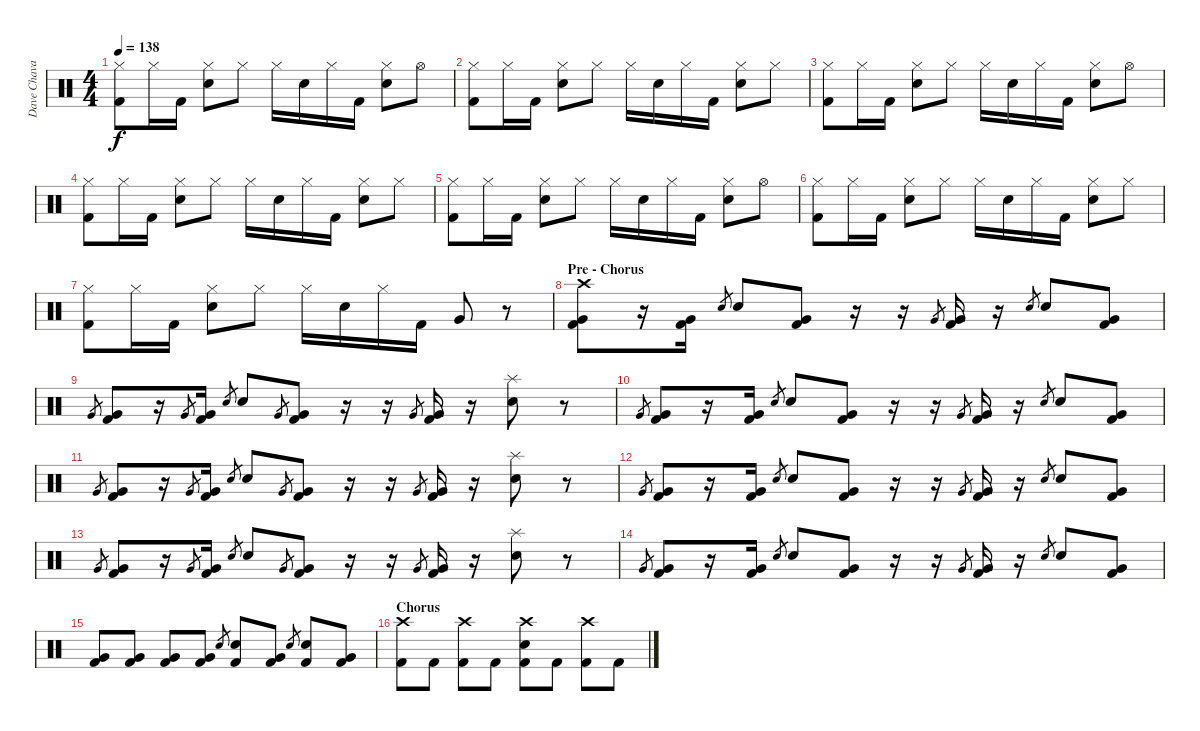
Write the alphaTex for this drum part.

\track ("Dave Chavarri - Drums" "Dave Chava") {instrument percussion}
\staff {score}
\articulation defaults
\ts (4 4)
\tempo 138
\clef neutral
\ks c
("Hi-Hat (closed)" "Kick (hit) 2").8{dy f} "Hi-Hat (closed)".16 "Kick (hit) 2".16 ("Hi-Hat (closed)" "Electric Snare (hit)").8 "Hi-Hat (closed)".8 "Hi-Hat (closed)".16 "Electric Snare (hit)".16 "Hi-Hat (closed)".16 "Kick (hit) 2".16 ("Hi-Hat (closed)" "Electric Snare (hit)").8 "Hi-Hat (open)".8 |
("Hi-Hat (closed)" "Kick (hit) 2").8 "Hi-Hat (closed)".16 "Kick (hit) 2".16 ("Hi-Hat (closed)" "Electric Snare (hit)").8 "Hi-Hat (closed)".8 "Hi-Hat (closed)".16 "Electric Snare (hit)".16 "Hi-Hat (closed)".16 "Kick (hit) 2".16 ("Hi-Hat (closed)" "Electric Snare (hit)").8 "Hi-Hat (closed)".8 |
("Hi-Hat (closed)" "Kick (hit) 2").8 "Hi-Hat (closed)".16 "Kick (hit) 2".16 ("Hi-Hat (closed)" "Electric Snare (hit)").8 "Hi-Hat (closed)".8 "Hi-Hat (closed)".16 "Electric Snare (hit)".16 "Hi-Hat (closed)".16 "Kick (hit) 2".16 ("Hi-Hat (closed)" "Electric Snare (hit)").8 "Hi-Hat (open)".8 |
("Hi-Hat (closed)" "Kick (hit) 2").8 "Hi-Hat (closed)".16 "Kick (hit) 2".16 ("Hi-Hat (closed)" "Electric Snare (hit)").8 "Hi-Hat (closed)".8 "Hi-Hat (closed)".16 "Electric Snare (hit)".16 "Hi-Hat (closed)".16 "Kick (hit) 2".16 ("Hi-Hat (closed)" "Electric Snare (hit)").8 "Hi-Hat (closed)".8 |
("Hi-Hat (closed)" "Kick (hit) 2").8 "Hi-Hat (closed)".16 "Kick (hit) 2".16 ("Hi-Hat (closed)" "Electric Snare (hit)").8 "Hi-Hat (closed)".8 "Hi-Hat (closed)".16 "Electric Snare (hit)".16 "Hi-Hat (closed)".16 "Kick (hit) 2".16 ("Hi-Hat (closed)" "Electric Snare (hit)").8 "Hi-Hat (open)".8 |
("Hi-Hat (closed)" "Kick (hit) 2").8 "Hi-Hat (closed)".16 "Kick (hit) 2".16 ("Hi-Hat (closed)" "Electric Snare (hit)").8 "Hi-Hat (closed)".8 "Hi-Hat (closed)".16 "Electric Snare (hit)".16 "Hi-Hat (closed)".16 "Kick (hit) 2".16 ("Hi-Hat (closed)" "Electric Snare (hit)").8 "Hi-Hat (closed)".8 |
("Hi-Hat (closed)" "Kick (hit) 2").8 "Hi-Hat (closed)".16 "Kick (hit) 2".16 ("Hi-Hat (closed)" "Electric Snare (hit)").8 "Hi-Hat (closed)".8 "Hi-Hat (closed)".16 "Electric Snare (hit)".16 "Hi-Hat (closed)".16 "Kick (hit) 2".16 "Very Low Tom (hit)".8 r.8 |
\section ("" "Pre - Chorus")
("Crash high (hit)" "Very Low Tom (hit)" "Kick (hit) 2").8 r.16 ("Very Low Tom (hit)" "Kick (hit) 2").16 "Electric Snare (hit)".8{gr} "Electric Snare (hit)".8 ("Very Low Tom (hit)" "Kick (hit) 2").8 r.16 r.16 "Very Low Tom (hit)".8{gr} ("Very Low Tom (hit)" "Kick (hit) 2").16 r.16 "Electric Snare (hit)".8{gr} "Electric Snare (hit)".8 ("Very Low Tom (hit)" "Kick (hit) 2").8 |
"Very Low Tom (hit)".8{gr} ("Very Low Tom (hit)" "Kick (hit) 2").8 r.16 "Very Low Tom (hit)".8{gr} ("Very Low Tom (hit)" "Kick (hit) 2").16 "Electric Snare (hit)".8{gr} "Electric Snare (hit)".8 "Very Low Tom (hit)".8{gr} ("Very Low Tom (hit)" "Kick (hit) 2").8 r.16 r.16 "Very Low Tom (hit)".8{gr} ("Very Low Tom (hit)" "Kick (hit) 2").16 r.16 ("Splash (hit)" "Electric Snare (hit)").8 r.8 |
"Very Low Tom (hit)".8{gr} ("Very Low Tom (hit)" "Kick (hit) 2").8 r.16 ("Very Low Tom (hit)" "Kick (hit) 2").16 "Electric Snare (hit)".8{gr} "Electric Snare (hit)".8 ("Very Low Tom (hit)" "Kick (hit) 2").8 r.16 r.16 "Very Low Tom (hit)".8{gr} ("Very Low Tom (hit)" "Kick (hit) 2").16 r.16 "Electric Snare (hit)".8{gr} "Electric Snare (hit)".8 ("Very Low Tom (hit)" "Kick (hit) 2").8 |
"Very Low Tom (hit)".8{gr} ("Very Low Tom (hit)" "Kick (hit) 2").8 r.16 "Very Low Tom (hit)".8{gr} ("Very Low Tom (hit)" "Kick (hit) 2").16 "Electric Snare (hit)".8{gr} "Electric Snare (hit)".8 "Very Low Tom (hit)".8{gr} ("Very Low Tom (hit)" "Kick (hit) 2").8 r.16 r.16 "Very Low Tom (hit)".8{gr} ("Very Low Tom (hit)" "Kick (hit) 2").16 r.16 ("Splash (hit)" "Electric Snare (hit)").8 r.8 |
"Very Low Tom (hit)".8{gr} ("Very Low Tom (hit)" "Kick (hit) 2").8 r.16 ("Very Low Tom (hit)" "Kick (hit) 2").16 "Electric Snare (hit)".8{gr} "Electric Snare (hit)".8 ("Very Low Tom (hit)" "Kick (hit) 2").8 r.16 r.16 "Very Low Tom (hit)".8{gr} ("Very Low Tom (hit)" "Kick (hit) 2").16 r.16 "Electric Snare (hit)".8{gr} "Electric Snare (hit)".8 ("Very Low Tom (hit)" "Kick (hit) 2").8 |
"Very Low Tom (hit)".8{gr} ("Very Low Tom (hit)" "Kick (hit) 2").8 r.16 "Very Low Tom (hit)".8{gr} ("Very Low Tom (hit)" "Kick (hit) 2").16 "Electric Snare (hit)".8{gr} "Electric Snare (hit)".8 "Very Low Tom (hit)".8{gr} ("Very Low Tom (hit)" "Kick (hit) 2").8 r.16 r.16 "Very Low Tom (hit)".8{gr} ("Very Low Tom (hit)" "Kick (hit) 2").16 r.16 ("Splash (hit)" "Electric Snare (hit)").8 r.8 |
"Very Low Tom (hit)".8{gr} ("Very Low Tom (hit)" "Kick (hit) 2").8 r.16 ("Very Low Tom (hit)" "Kick (hit) 2").16 "Electric Snare (hit)".8{gr} "Electric Snare (hit)".8 ("Very Low Tom (hit)" "Kick (hit) 2").8 r.16 r.16 "Very Low Tom (hit)".8{gr} ("Very Low Tom (hit)" "Kick (hit) 2").16 r.16 "Electric Snare (hit)".8{gr} "Electric Snare (hit)".8 ("Very Low Tom (hit)" "Kick (hit) 2").8 |
("Very Low Tom (hit)" "Kick (hit) 2").8 ("Very Low Tom (hit)" "Kick (hit) 2").8 ("Very Low Tom (hit)" "Kick (hit) 2").8 ("Very Low Tom (hit)" "Kick (hit) 2").8 "Electric Snare (hit)".8{gr} ("Electric Snare (hit)" "Kick (hit) 2").8 ("Very Low Tom (hit)" "Kick (hit) 2").8 "Electric Snare (hit)".8{gr} ("Electric Snare (hit)" "Kick (hit) 2").8 ("Very Low Tom (hit)" "Kick (hit) 2").8 |
\section ("" "Chorus")
("Crash high (hit)" "Kick (hit) 2").8 "Kick (hit) 2".8 ("Crash high (hit)" "Kick (hit) 2").8 "Kick (hit) 2".8 ("Crash high (hit)" "Electric Snare (hit)" "Kick (hit) 2").8 "Kick (hit) 2".8 ("Crash high (hit)" "Kick (hit) 2").8 "Kick (hit) 2".8
